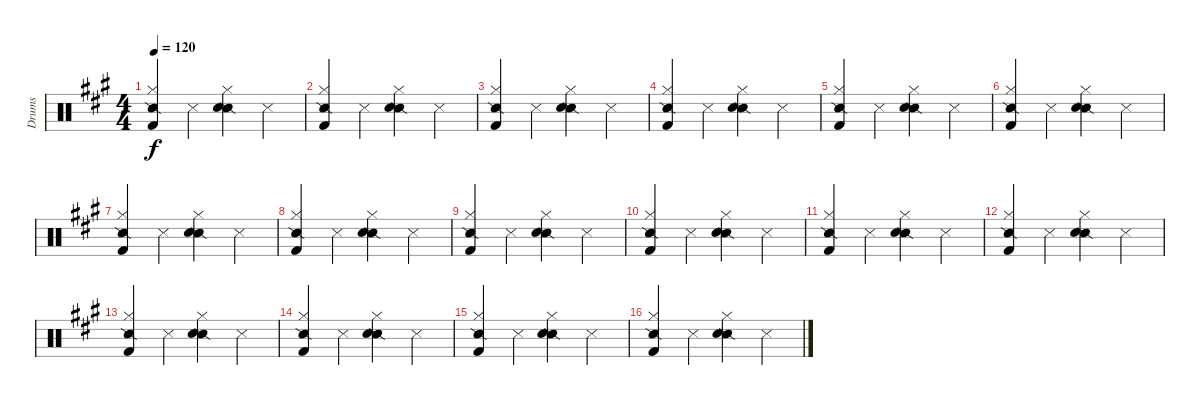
\track ("Drums" "Drums") {instrument percussion}
\staff {score}
\articulation defaults
\ts (4 4)
\tempo 120
\clef neutral
\ks a
("Snare (side stick) 2" "Hi-Hat (closed)" "Kick (hit) 2").4{dy f} "Snare (side stick) 3".4 ("Snare (side stick) 2" "Hi-Hat (closed)" "Electric Snare (hit)").4 "Snare (side stick) 3".4 |
("Snare (side stick) 2" "Hi-Hat (closed)" "Kick (hit) 2").4 "Snare (side stick) 3".4 ("Snare (side stick) 2" "Hi-Hat (closed)" "Electric Snare (hit)").4 "Snare (side stick) 3".4 |
("Snare (side stick) 2" "Hi-Hat (closed)" "Kick (hit) 2").4 "Snare (side stick) 3".4 ("Snare (side stick) 2" "Hi-Hat (closed)" "Electric Snare (hit)").4 "Snare (side stick) 3".4 |
("Snare (side stick) 2" "Hi-Hat (closed)" "Kick (hit) 2").4 "Snare (side stick) 3".4 ("Snare (side stick) 2" "Hi-Hat (closed)" "Electric Snare (hit)").4 "Snare (side stick) 3".4 |
("Snare (side stick) 2" "Hi-Hat (closed)" "Kick (hit) 2").4 "Snare (side stick) 3".4 ("Snare (side stick) 2" "Hi-Hat (closed)" "Electric Snare (hit)").4 "Snare (side stick) 3".4 |
("Snare (side stick) 2" "Hi-Hat (closed)" "Kick (hit) 2").4 "Snare (side stick) 3".4 ("Snare (side stick) 2" "Hi-Hat (closed)" "Electric Snare (hit)").4 "Snare (side stick) 3".4 |
("Snare (side stick) 2" "Hi-Hat (closed)" "Kick (hit) 2").4 "Snare (side stick) 3".4 ("Snare (side stick) 2" "Hi-Hat (closed)" "Electric Snare (hit)").4 "Snare (side stick) 3".4 |
("Snare (side stick) 2" "Hi-Hat (closed)" "Kick (hit) 2").4 "Snare (side stick) 3".4 ("Snare (side stick) 2" "Hi-Hat (closed)" "Electric Snare (hit)").4 "Snare (side stick) 3".4 |
("Snare (side stick) 2" "Hi-Hat (closed)" "Kick (hit) 2").4 "Snare (side stick) 3".4 ("Snare (side stick) 2" "Hi-Hat (closed)" "Electric Snare (hit)").4 "Snare (side stick) 3".4 |
("Snare (side stick) 2" "Hi-Hat (closed)" "Kick (hit) 2").4 "Snare (side stick) 3".4 ("Snare (side stick) 2" "Hi-Hat (closed)" "Electric Snare (hit)").4 "Snare (side stick) 3".4 |
("Snare (side stick) 2" "Hi-Hat (closed)" "Kick (hit) 2").4 "Snare (side stick) 3".4 ("Snare (side stick) 2" "Hi-Hat (closed)" "Electric Snare (hit)").4 "Snare (side stick) 3".4 |
("Snare (side stick) 2" "Hi-Hat (closed)" "Kick (hit) 2").4 "Snare (side stick) 3".4 ("Snare (side stick) 2" "Hi-Hat (closed)" "Electric Snare (hit)").4 "Snare (side stick) 3".4 |
("Snare (side stick) 2" "Hi-Hat (closed)" "Kick (hit) 2").4 "Snare (side stick) 3".4 ("Snare (side stick) 2" "Hi-Hat (closed)" "Electric Snare (hit)").4 "Snare (side stick) 3".4 |
("Snare (side stick) 2" "Hi-Hat (closed)" "Kick (hit) 2").4 "Snare (side stick) 3".4 ("Snare (side stick) 2" "Hi-Hat (closed)" "Electric Snare (hit)").4 "Snare (side stick) 3".4 |
("Snare (side stick) 2" "Hi-Hat (closed)" "Kick (hit) 2").4 "Snare (side stick) 3".4 ("Snare (side stick) 2" "Hi-Hat (closed)" "Electric Snare (hit)").4 "Snare (side stick) 3".4 |
("Snare (side stick) 2" "Hi-Hat (closed)" "Kick (hit) 2").4 "Snare (side stick) 3".4 ("Snare (side stick) 2" "Hi-Hat (closed)" "Electric Snare (hit)").4 "Snare (side stick) 3".4
